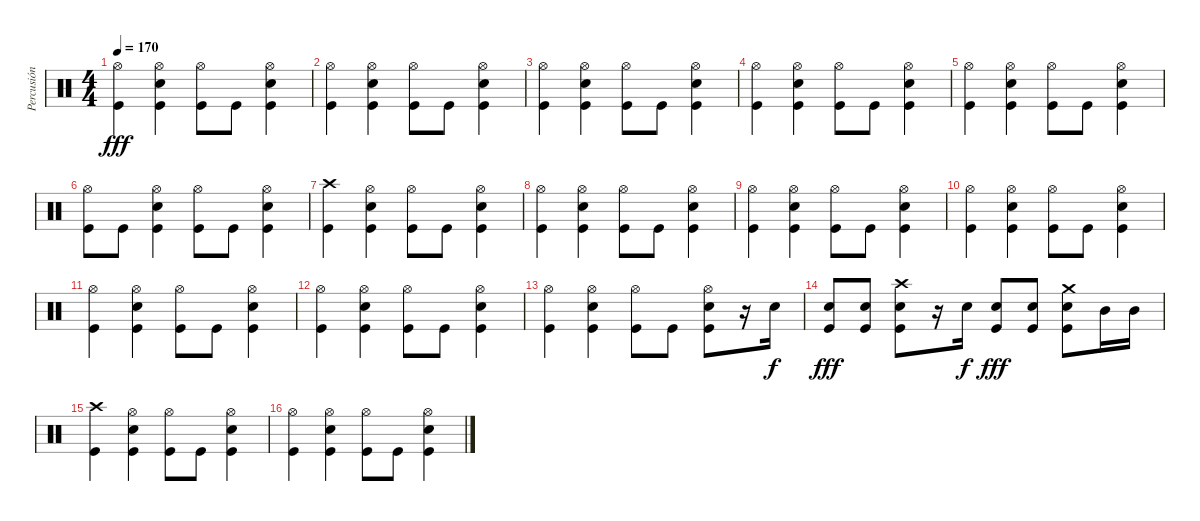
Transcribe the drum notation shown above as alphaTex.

\track ("Percusión" "Percusión") {instrument percussion}
\staff {score}
\articulation defaults
\ts (4 4)
\tempo 170
\clef neutral
\ks c
("Hi-Hat (open)" "Kick (hit)").4{dy fff} ("Hi-Hat (open)" "Electric Snare (hit)" "Kick (hit)").4 ("Hi-Hat (open)" "Kick (hit)").8 "Kick (hit)".8 ("Hi-Hat (open)" "Electric Snare (hit)" "Kick (hit)").4 |
("Hi-Hat (open)" "Kick (hit)").4 ("Hi-Hat (open)" "Electric Snare (hit)" "Kick (hit)").4 ("Hi-Hat (open)" "Kick (hit)").8 "Kick (hit)".8 ("Hi-Hat (open)" "Electric Snare (hit)" "Kick (hit)").4 |
("Hi-Hat (open)" "Kick (hit)").4 ("Hi-Hat (open)" "Electric Snare (hit)" "Kick (hit)").4 ("Hi-Hat (open)" "Kick (hit)").8 "Kick (hit)".8 ("Hi-Hat (open)" "Electric Snare (hit)" "Kick (hit)").4 |
("Hi-Hat (open)" "Kick (hit)").4 ("Hi-Hat (open)" "Electric Snare (hit)" "Kick (hit)").4 ("Hi-Hat (open)" "Kick (hit)").8 "Kick (hit)".8 ("Hi-Hat (open)" "Electric Snare (hit)" "Kick (hit)").4 |
("Hi-Hat (open)" "Kick (hit)").4 ("Hi-Hat (open)" "Electric Snare (hit)" "Kick (hit)").4 ("Hi-Hat (open)" "Kick (hit)").8 "Kick (hit)".8 ("Hi-Hat (open)" "Electric Snare (hit)" "Kick (hit)").4 |
("Hi-Hat (open)" "Kick (hit)").8 "Kick (hit)".8 ("Hi-Hat (open)" "Electric Snare (hit)" "Kick (hit)").4 ("Hi-Hat (open)" "Kick (hit)").8 "Kick (hit)".8 ("Hi-Hat (open)" "Electric Snare (hit)" "Kick (hit)").4 |
("Crash high (hit)" "Kick (hit)").4 ("Hi-Hat (open)" "Electric Snare (hit)" "Kick (hit)").4 ("Hi-Hat (open)" "Kick (hit)").8 "Kick (hit)".8 ("Hi-Hat (open)" "Electric Snare (hit)" "Kick (hit)").4 |
("Hi-Hat (open)" "Kick (hit)").4 ("Hi-Hat (open)" "Electric Snare (hit)" "Kick (hit)").4 ("Hi-Hat (open)" "Kick (hit)").8 "Kick (hit)".8 ("Hi-Hat (open)" "Electric Snare (hit)" "Kick (hit)").4 |
("Hi-Hat (open)" "Kick (hit)").4 ("Hi-Hat (open)" "Electric Snare (hit)" "Kick (hit)").4 ("Hi-Hat (open)" "Kick (hit)").8 "Kick (hit)".8 ("Hi-Hat (open)" "Electric Snare (hit)" "Kick (hit)").4 |
("Hi-Hat (open)" "Kick (hit)").4 ("Hi-Hat (open)" "Electric Snare (hit)" "Kick (hit)").4 ("Hi-Hat (open)" "Kick (hit)").8 "Kick (hit)".8 ("Hi-Hat (open)" "Electric Snare (hit)" "Kick (hit)").4 |
("Hi-Hat (open)" "Kick (hit)").4 ("Hi-Hat (open)" "Electric Snare (hit)" "Kick (hit)").4 ("Hi-Hat (open)" "Kick (hit)").8 "Kick (hit)".8 ("Hi-Hat (open)" "Electric Snare (hit)" "Kick (hit)").4 |
("Hi-Hat (open)" "Kick (hit)").4 ("Hi-Hat (open)" "Electric Snare (hit)" "Kick (hit)").4 ("Hi-Hat (open)" "Kick (hit)").8 "Kick (hit)".8 ("Hi-Hat (open)" "Electric Snare (hit)" "Kick (hit)").4 |
("Hi-Hat (open)" "Kick (hit)").4 ("Hi-Hat (open)" "Electric Snare (hit)" "Kick (hit)").4 ("Hi-Hat (open)" "Kick (hit)").8 "Kick (hit)".8 ("Hi-Hat (open)" "Electric Snare (hit)" "Kick (hit)").8 r.16 "Electric Snare (hit)".16{dy f} |
("Electric Snare (hit)" "Kick (hit)").8{dy fff} ("Electric Snare (hit)" "Kick (hit)").8 ("Crash high (hit)" "Electric Snare (hit)" "Kick (hit)").8 r.16 "Electric Snare (hit)".16{dy f} ("Electric Snare (hit)" "Kick (hit)").8{dy fff} ("Electric Snare (hit)" "Kick (hit)").8 ("Crash medium (hit)" "Electric Snare (hit)" "Kick (hit)").8 "Mid Tom (hit)".16 "Mid Tom (hit)".16 |
("Crash high (hit)" "Kick (hit)").4 ("Hi-Hat (open)" "Electric Snare (hit)" "Kick (hit)").4 ("Hi-Hat (open)" "Kick (hit)").8 "Kick (hit)".8 ("Hi-Hat (open)" "Electric Snare (hit)" "Kick (hit)").4 |
("Hi-Hat (open)" "Kick (hit)").4 ("Hi-Hat (open)" "Electric Snare (hit)" "Kick (hit)").4 ("Hi-Hat (open)" "Kick (hit)").8 "Kick (hit)".8 ("Hi-Hat (open)" "Electric Snare (hit)" "Kick (hit)").4
